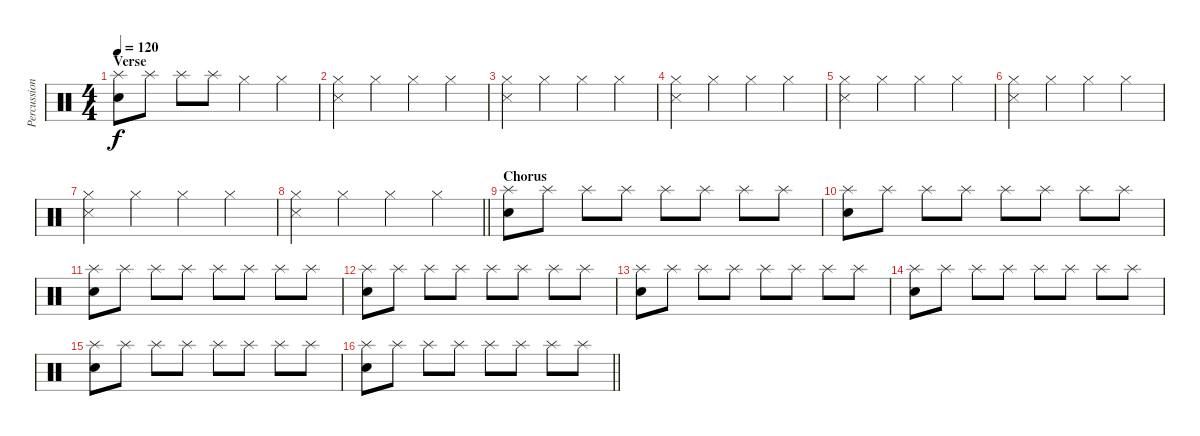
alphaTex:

\track ("Percussion" "Percussion") {instrument percussion}
\staff {score}
\articulation defaults
\ts (4 4)
\section ("" "Verse")
\tempo 120
\clef neutral
\ks c
("Splash (hit)" "Snare (hit) 2").8{dy f} "Splash (hit)".8 "Splash (hit)".8 "Splash (hit)".8 "Hi-Hat (closed)".4 "Hi-Hat (closed)".4 |
("Hi-Hat (closed)" "Snare (side stick) 3").4 "Hi-Hat (closed)".4 "Hi-Hat (closed)".4 "Hi-Hat (closed)".4 |
("Hi-Hat (closed)" "Snare (side stick) 3").4 "Hi-Hat (closed)".4 "Hi-Hat (closed)".4 "Hi-Hat (closed)".4 |
("Hi-Hat (closed)" "Snare (side stick) 3").4 "Hi-Hat (closed)".4 "Hi-Hat (closed)".4 "Hi-Hat (closed)".4 |
("Hi-Hat (closed)" "Snare (side stick) 3").4 "Hi-Hat (closed)".4 "Hi-Hat (closed)".4 "Hi-Hat (closed)".4 |
("Hi-Hat (closed)" "Snare (side stick) 3").4 "Hi-Hat (closed)".4 "Hi-Hat (closed)".4 "Hi-Hat (closed)".4 |
("Hi-Hat (closed)" "Snare (side stick) 3").4 "Hi-Hat (closed)".4 "Hi-Hat (closed)".4 "Hi-Hat (closed)".4 |
\barLineRight lightlight
("Hi-Hat (closed)" "Snare (side stick) 3").4 "Hi-Hat (closed)".4 "Hi-Hat (closed)".4 "Hi-Hat (closed)".4 |
\section ("" "Chorus")
("Splash (hit)" "Snare (hit) 2").8 "Splash (hit)".8 "Splash (hit)".8 "Splash (hit)".8 "Splash (hit)".8 "Splash (hit)".8 "Splash (hit)".8 "Splash (hit)".8 |
("Splash (hit)" "Snare (hit) 2").8 "Splash (hit)".8 "Splash (hit)".8 "Splash (hit)".8 "Splash (hit)".8 "Splash (hit)".8 "Splash (hit)".8 "Splash (hit)".8 |
("Splash (hit)" "Snare (hit) 2").8 "Splash (hit)".8 "Splash (hit)".8 "Splash (hit)".8 "Splash (hit)".8 "Splash (hit)".8 "Splash (hit)".8 "Splash (hit)".8 |
("Splash (hit)" "Snare (hit) 2").8 "Splash (hit)".8 "Splash (hit)".8 "Splash (hit)".8 "Splash (hit)".8 "Splash (hit)".8 "Splash (hit)".8 "Splash (hit)".8 |
("Splash (hit)" "Snare (hit) 2").8 "Splash (hit)".8 "Splash (hit)".8 "Splash (hit)".8 "Splash (hit)".8 "Splash (hit)".8 "Splash (hit)".8 "Splash (hit)".8 |
("Splash (hit)" "Snare (hit) 2").8 "Splash (hit)".8 "Splash (hit)".8 "Splash (hit)".8 "Splash (hit)".8 "Splash (hit)".8 "Splash (hit)".8 "Splash (hit)".8 |
("Splash (hit)" "Snare (hit) 2").8 "Splash (hit)".8 "Splash (hit)".8 "Splash (hit)".8 "Splash (hit)".8 "Splash (hit)".8 "Splash (hit)".8 "Splash (hit)".8 |
\barLineRight lightlight
("Splash (hit)" "Snare (hit) 2").8 "Splash (hit)".8 "Splash (hit)".8 "Splash (hit)".8 "Splash (hit)".8 "Splash (hit)".8 "Splash (hit)".8 "Splash (hit)".8
